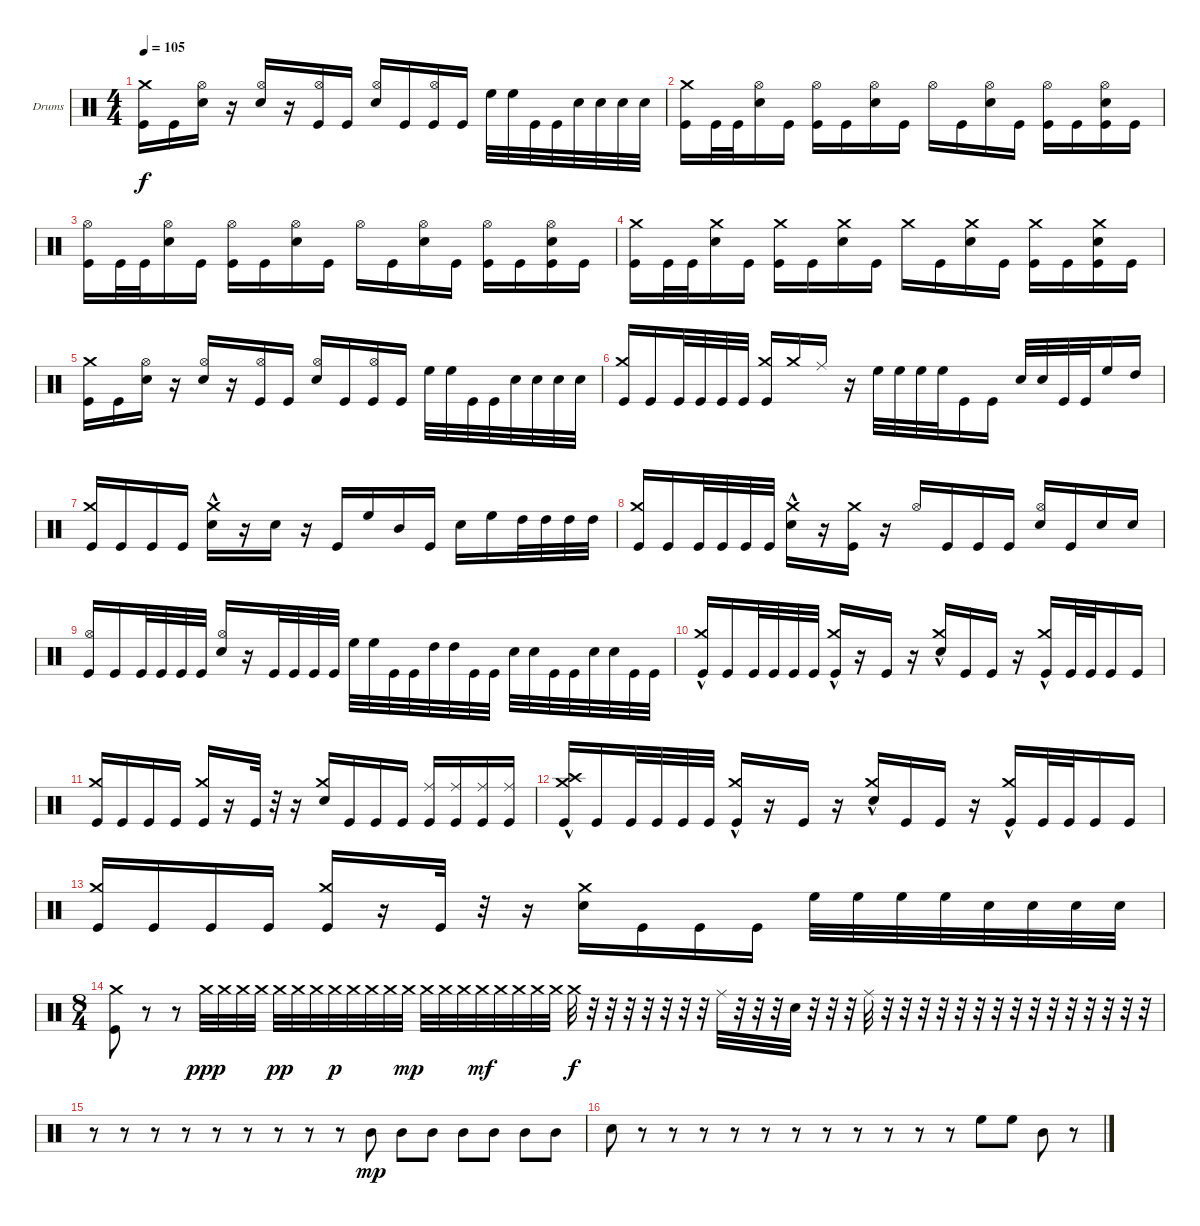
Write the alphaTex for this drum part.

\defaultSystemsLayout 4
\bracketExtendMode groupsimilarinstruments
\firstSystemTrackNameOrientation horizontal
\otherSystemsTrackNameOrientation horizontal
\track ("Drumkit" "Drums") {instrument percussion}
\staff {score}
\articulation defaults
\ts (4 4)
\tempo 105
\clef neutral
\ks c
("Kick (hit)" "Crash medium (hit)").16{dy f} "Kick (hit)".16 ("Snare (hit) 2" "Hi-Hat (open)").16 r.16 ("Hi-Hat (open)" "Snare (hit) 2").16 r.16 ("Hi-Hat (open)" "Kick (hit)").16 "Kick (hit)".16 ("Snare (hit) 2" "Hi-Hat (open)").16{beam invert} "Kick (hit)".16 ("Kick (hit)" "Hi-Hat (open)").16 "Kick (hit)".16 "High Floor Tom (hit)".32{beam invert} "High Floor Tom (hit)".32 "Kick (hit)".32 "Kick (hit)".32 "Snare (hit) 2".32 "Snare (hit) 2".32 "Snare (hit) 2".32 "Snare (hit) 2".32 |
("Kick (hit)" "Crash medium (hit)").16 "Kick (hit)".32 "Kick (hit)".32 ("Snare (hit) 2" "Hi-Hat (open)").16 "Kick (hit)".16 ("Hi-Hat (open)" "Kick (hit)").16 "Kick (hit)".16 ("Snare (hit) 2" "Hi-Hat (open)").16 "Kick (hit)".16 "Hi-Hat (open)".16 "Kick (hit)".16 ("Snare (hit) 2" "Hi-Hat (open)").16 "Kick (hit)".16 ("Kick (hit)" "Hi-Hat (open)").16 "Kick (hit)".16 ("Kick (hit)" "Snare (hit) 2" "Hi-Hat (open)").16 "Kick (hit)".16 |
("Kick (hit)" "Hi-Hat (open)").16 "Kick (hit)".32 "Kick (hit)".32 ("Snare (hit) 2" "Hi-Hat (open)").16 "Kick (hit)".16 ("Hi-Hat (open)" "Kick (hit)").16 "Kick (hit)".16 ("Snare (hit) 2" "Hi-Hat (open)").16 "Kick (hit)".16 "Hi-Hat (open)".16 "Kick (hit)".16 ("Snare (hit) 2" "Hi-Hat (open)").16 "Kick (hit)".16 ("Kick (hit)" "Hi-Hat (open)").16 "Kick (hit)".16 ("Kick (hit)" "Snare (hit) 2" "Hi-Hat (open)").16 "Kick (hit)".16 |
("Kick (hit)" "Crash medium (hit)").16 "Kick (hit)".32 "Kick (hit)".32 ("Snare (hit) 2" "Crash medium (hit)").16 "Kick (hit)".16 ("Kick (hit)" "Crash medium (hit)").16 "Kick (hit)".16 ("Snare (hit) 2" "Crash medium (hit)").16 "Kick (hit)".16 "Crash medium (hit)".16 "Kick (hit)".16 ("Snare (hit) 2" "Crash medium (hit)").16 "Kick (hit)".16 ("Kick (hit)" "Crash medium (hit)").16 "Kick (hit)".16 ("Kick (hit)" "Snare (hit) 2" "Crash medium (hit)").16 "Kick (hit)".16 |
("Kick (hit)" "Crash medium (hit)").16 "Kick (hit)".16 ("Snare (hit) 2" "Hi-Hat (open)").16 r.16 ("Hi-Hat (open)" "Snare (hit) 2").16 r.16 ("Hi-Hat (open)" "Kick (hit)").16 "Kick (hit)".16 ("Snare (hit) 2" "Hi-Hat (open)").16{beam invert} "Kick (hit)".16 ("Kick (hit)" "Hi-Hat (open)").16 "Kick (hit)".16 "High Floor Tom (hit)".32{beam invert} "High Floor Tom (hit)".32 "Kick (hit)".32 "Kick (hit)".32 "Snare (hit) 2".32 "Snare (hit) 2".32 "Snare (hit) 2".32 "Snare (hit) 2".32 |
("Kick (hit)" "Crash medium (hit)").16{beam invert} "Kick (hit)".16 "Kick (hit)".32 "Kick (hit)".32 "Kick (hit)".32 "Kick (hit)".32 ("Kick (hit)" "Crash medium (hit)").16 "Crash medium (hit)".16 "Ride (middle)".16 r.16 "High Floor Tom (hit)".32{beam invert} "High Floor Tom (hit)".32 "High Floor Tom (hit)".32 "High Floor Tom (hit)".32 "Kick (hit)".16 "Kick (hit)".16 "Snare (hit) 2".32 "Snare (hit) 2".32 "Kick (hit)".32 "Kick (hit)".32 "High Floor Tom (hit)".16 "High Tom (hit)".16 |
("Kick (hit)" "Crash medium (hit)").16{beam invert} "Kick (hit)".16 "Kick (hit)".16 "Kick (hit)".16 ("Snare (hit) 2" "Crash medium (hit)"{hac}).16 r.16 "Snare (hit) 2".16 r.16 "Kick (hit)".16 "High Floor Tom (hit)".16 "Mid Tom (hit)".16 "Kick (hit)".16 "Snare (hit) 2".16 "High Floor Tom (hit)".16 "High Tom (hit)".32 "High Tom (hit)".32 "High Tom (hit)".32 "High Tom (hit)".32 |
("Kick (hit)" "Crash medium (hit)").16{beam invert} "Kick (hit)".16 "Kick (hit)".32 "Kick (hit)".32 "Kick (hit)".32 "Kick (hit)".32 ("Snare (hit) 2" "Crash medium (hit)"{hac}).16 r.16 ("Crash medium (hit)" "Kick (hit)").16 r.16 "Hi-Hat (open)".16 "Kick (hit)".16 "Kick (hit)".16 "Kick (hit)".16 ("Snare (hit) 2" "Hi-Hat (open)").16{beam invert} "Kick (hit)".16 "Snare (hit) 2".16 "Snare (hit) 2".16 |
("Kick (hit)" "Hi-Hat (open)").16{beam invert} "Kick (hit)".16 "Kick (hit)".32 "Kick (hit)".32 "Kick (hit)".32 "Kick (hit)".32 ("Snare (hit) 2" "Hi-Hat (open)").16 r.16 "Kick (hit)".32 "Kick (hit)".32 "Kick (hit)".32 "Kick (hit)".32 "High Floor Tom (hit)".32{beam invert} "High Floor Tom (hit)".32 "Kick (hit)".32 "Kick (hit)".32 "High Tom (hit)".32 "High Tom (hit)".32 "Kick (hit)".32 "Kick (hit)".32 "Snare (hit) 2".32{beam invert} "Snare (hit) 2".32 "Kick (hit)".32 "Kick (hit)".32 "Snare (hit) 2".32 "Snare (hit) 2".32 "Kick (hit)".32 "Kick (hit)".32 |
("Kick (hit)" "Crash medium (hit)"{hac}).16{beam invert} "Kick (hit)".16 "Kick (hit)".32 "Kick (hit)".32 "Kick (hit)".32 "Kick (hit)".32 ("Kick (hit)" "Crash medium (hit)"{hac}).16{beam invert} r.16 "Kick (hit)".16 r.16 ("Snare (hit) 2" "Crash medium (hit)"{hac}).16 "Kick (hit)".16 "Kick (hit)".16 r.16 ("Kick (hit)" "Crash medium (hit)"{hac}).16{beam invert} "Kick (hit)".32 "Kick (hit)".32 "Kick (hit)".16 "Kick (hit)".16 |
("Kick (hit)" "Crash medium (hit)").16{beam invert} "Kick (hit)".16 "Kick (hit)".16 "Kick (hit)".16 ("Kick (hit)" "Crash medium (hit)").16{beam invert} r.16 "Kick (hit)".32 r.32 r.16 ("Snare (hit) 2" "Crash medium (hit)").16 "Kick (hit)".16 "Kick (hit)".16 "Kick (hit)".16 ("Kick (hit)" "Ride (middle)").16{beam invert} ("Kick (hit)" "Ride (middle)").16 ("Kick (hit)" "Ride (middle)").16 ("Kick (hit)" "Ride (middle)").16 |
("Kick (hit)" "Crash medium (hit)"{hac} "Crash high (hit)").16 "Kick (hit)".16 "Kick (hit)".32 "Kick (hit)".32 "Kick (hit)".32 "Kick (hit)".32 ("Kick (hit)" "Crash medium (hit)"{hac}).16{beam invert} r.16 "Kick (hit)".16 r.16 ("Snare (hit) 2" "Crash medium (hit)"{hac}).16 "Kick (hit)".16 "Kick (hit)".16 r.16 ("Kick (hit)" "Crash medium (hit)"{hac}).16{beam invert} "Kick (hit)".32 "Kick (hit)".32 "Kick (hit)".16 "Kick (hit)".16 |
("Kick (hit)" "Crash medium (hit)").16{beam invert} "Kick (hit)".16 "Kick (hit)".16 "Kick (hit)".16 ("Kick (hit)" "Crash medium (hit)").16{beam invert} r.16 "Kick (hit)".32 r.32 r.16 ("Snare (hit) 2" "Crash medium (hit)").16 "Kick (hit)".16 "Kick (hit)".16 "Kick (hit)".16 "High Floor Tom (hit)".32 "High Floor Tom (hit)".32 "High Floor Tom (hit)".32 "High Floor Tom (hit)".32 "Snare (hit) 2".32 "Snare (hit) 2".32 "Snare (hit) 2".32 "Snare (hit) 2".32 |
\ts (8 4)
("Crash medium (hit)" "Kick (hit)").8 r.8 r.8 "Crash medium (hit)".32{dy ppp} "Crash medium (hit)".32 "Crash medium (hit)".32 "Crash medium (hit)".32 "Crash medium (hit)".32{dy pp} "Crash medium (hit)".32 "Crash medium (hit)".32 "Crash medium (hit)".32{dy p} "Crash medium (hit)".32 "Crash medium (hit)".32 "Crash medium (hit)".32 "Crash medium (hit)".32{dy mp} "Crash medium (hit)".32 "Crash medium (hit)".32 "Crash medium (hit)".32 "Crash medium (hit)".32{dy mf} "Crash medium (hit)".32 "Crash medium (hit)".32 "Crash medium (hit)".32 "Crash medium (hit)".32 "Crash medium (hit)".32{dy f} r.32 r.32 r.32 r.32 r.32 r.32 r.32 "Ride (middle)".32 r.32 r.32 r.32 "Snare (hit) 2".32 r.32 r.32 r.32 "Ride (middle)".32 r.32 r.32 r.32 r.32 r.32 r.32 r.32 r.32 r.32 r.32 r.32 r.32 r.32 r.32 r.32 |
r.8 r.8 r.8 r.8 r.8 r.8 r.8 r.8 r.8 "Mid Tom (hit)".8{dy mp} "Mid Tom (hit)".8 "Mid Tom (hit)".8 "Mid Tom (hit)".8 "Mid Tom (hit)".8 "Mid Tom (hit)".8 "Mid Tom (hit)".8 |
"Snare (hit) 2".8 r.8 r.8 r.8 r.8 r.8 r.8 r.8 r.8 r.8 r.8 r.8 "High Floor Tom (hit)".8 "High Floor Tom (hit)".8 "Mid Tom (hit)".8 r.8
